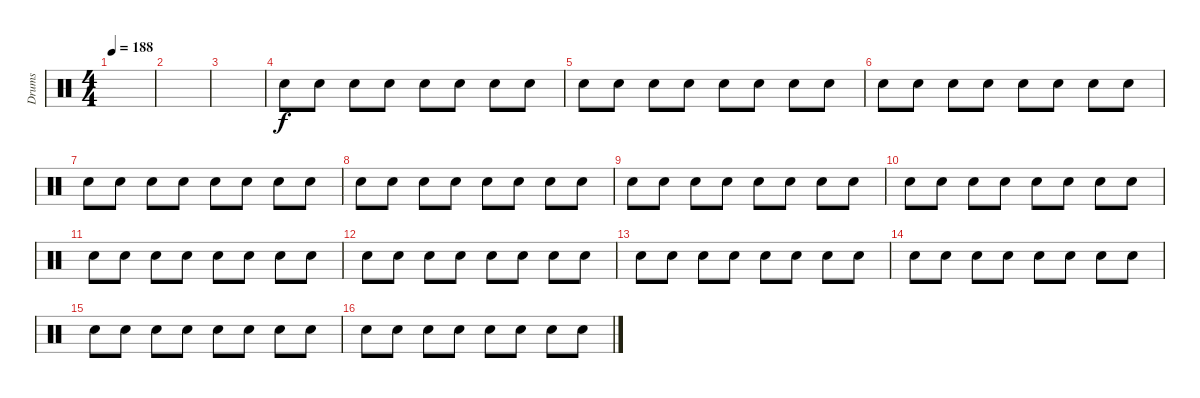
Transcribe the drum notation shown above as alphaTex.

\track ("Drums" "Drums") {instrument percussion}
\staff {score}
\articulation defaults
\ts (4 4)
\tempo 188
\clef neutral
\ks c
|
|
|
"Snare (hit) 2".8{volume 4} "Snare (hit) 2".8 "Snare (hit) 2".8 "Snare (hit) 2".8 "Snare (hit) 2".8 "Snare (hit) 2".8 "Snare (hit) 2".8 "Snare (hit) 2".8 |
"Snare (hit) 2".8{volume 5} "Snare (hit) 2".8 "Snare (hit) 2".8 "Snare (hit) 2".8 "Snare (hit) 2".8 "Snare (hit) 2".8 "Snare (hit) 2".8 "Snare (hit) 2".8 |
"Snare (hit) 2".8{volume 6} "Snare (hit) 2".8 "Snare (hit) 2".8 "Snare (hit) 2".8 "Snare (hit) 2".8 "Snare (hit) 2".8 "Snare (hit) 2".8 "Snare (hit) 2".8 |
"Snare (hit) 2".8{volume 7} "Snare (hit) 2".8 "Snare (hit) 2".8 "Snare (hit) 2".8 "Snare (hit) 2".8 "Snare (hit) 2".8 "Snare (hit) 2".8 "Snare (hit) 2".8 |
"Snare (hit) 2".8{volume 8} "Snare (hit) 2".8 "Snare (hit) 2".8 "Snare (hit) 2".8 "Snare (hit) 2".8 "Snare (hit) 2".8 "Snare (hit) 2".8 "Snare (hit) 2".8 |
"Snare (hit) 2".8{volume 9} "Snare (hit) 2".8 "Snare (hit) 2".8 "Snare (hit) 2".8 "Snare (hit) 2".8 "Snare (hit) 2".8 "Snare (hit) 2".8 "Snare (hit) 2".8 |
"Snare (hit) 2".8{volume 10} "Snare (hit) 2".8 "Snare (hit) 2".8 "Snare (hit) 2".8 "Snare (hit) 2".8 "Snare (hit) 2".8 "Snare (hit) 2".8 "Snare (hit) 2".8 |
"Snare (hit) 2".8{volume 11} "Snare (hit) 2".8 "Snare (hit) 2".8 "Snare (hit) 2".8 "Snare (hit) 2".8 "Snare (hit) 2".8 "Snare (hit) 2".8 "Snare (hit) 2".8 |
"Snare (hit) 2".8{volume 12} "Snare (hit) 2".8 "Snare (hit) 2".8 "Snare (hit) 2".8 "Snare (hit) 2".8 "Snare (hit) 2".8 "Snare (hit) 2".8 "Snare (hit) 2".8 |
"Snare (hit) 2".8{volume 13} "Snare (hit) 2".8 "Snare (hit) 2".8 "Snare (hit) 2".8 "Snare (hit) 2".8 "Snare (hit) 2".8 "Snare (hit) 2".8 "Snare (hit) 2".8 |
"Snare (hit) 2".8{volume 14} "Snare (hit) 2".8 "Snare (hit) 2".8 "Snare (hit) 2".8 "Snare (hit) 2".8 "Snare (hit) 2".8 "Snare (hit) 2".8 "Snare (hit) 2".8 |
"Snare (hit) 2".8{volume 15} "Snare (hit) 2".8 "Snare (hit) 2".8 "Snare (hit) 2".8 "Snare (hit) 2".8 "Snare (hit) 2".8 "Snare (hit) 2".8 "Snare (hit) 2".8 |
"Snare (hit) 2".8{volume 16} "Snare (hit) 2".8 "Snare (hit) 2".8 "Snare (hit) 2".8 "Snare (hit) 2".8 "Snare (hit) 2".8 "Snare (hit) 2".8 "Snare (hit) 2".8
